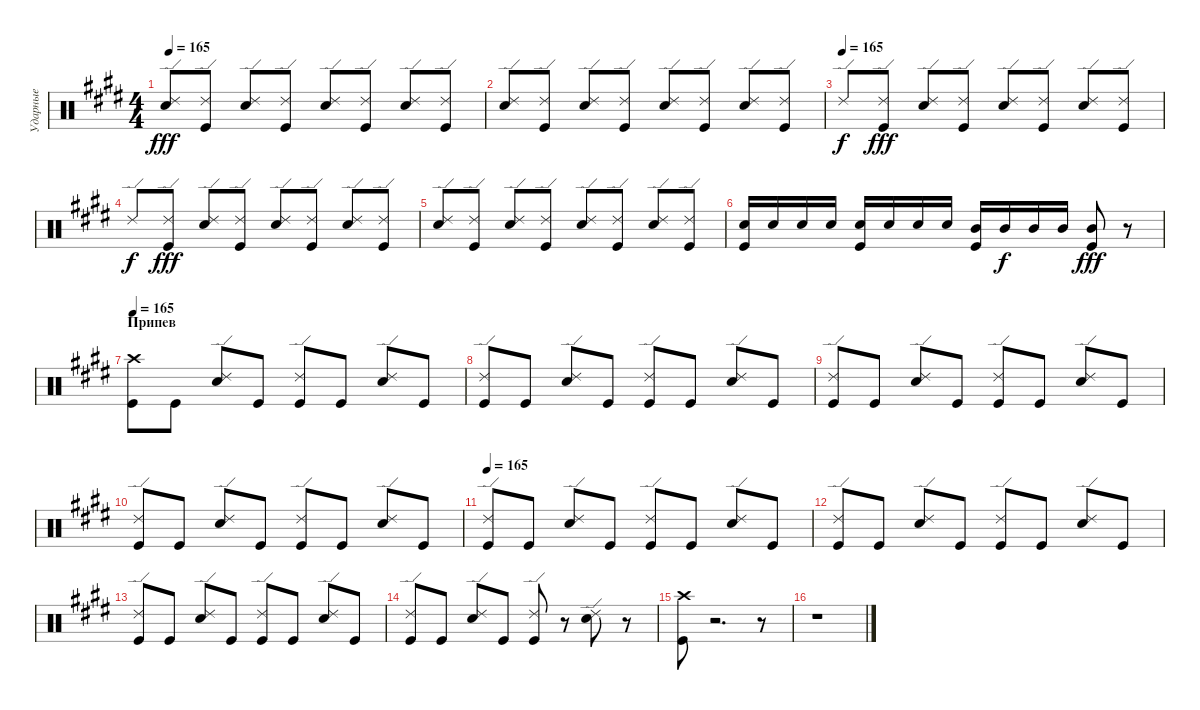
\track ("Ударные" "Ударные") {instrument percussion}
\staff {score}
\articulation defaults
\ts (4 4)
\tempo 165
\clef neutral
\ks e
("Ride (edge) 2" "Snare (hit) 2").8{dy fff} ("Ride (edge) 2" "Kick (hit)").8 ("Ride (edge) 2" "Snare (hit) 2").8 ("Ride (edge) 2" "Kick (hit)").8 ("Ride (edge) 2" "Snare (hit) 2").8 ("Ride (edge) 2" "Kick (hit)").8 ("Ride (edge) 2" "Snare (hit) 2").8 ("Ride (edge) 2" "Kick (hit)").8 |
("Ride (edge) 2" "Snare (hit) 2").8 ("Ride (edge) 2" "Kick (hit)").8 ("Ride (edge) 2" "Snare (hit) 2").8 ("Ride (edge) 2" "Kick (hit)").8 ("Ride (edge) 2" "Snare (hit) 2").8 ("Ride (edge) 2" "Kick (hit)").8 ("Ride (edge) 2" "Snare (hit) 2").8 ("Ride (edge) 2" "Kick (hit)").8 |
\tempo (165)
"Ride (edge) 2".8{dy f} ("Ride (edge) 2" "Kick (hit)").8{dy fff} ("Ride (edge) 2" "Snare (hit) 2").8 ("Ride (edge) 2" "Kick (hit)").8 ("Ride (edge) 2" "Snare (hit) 2").8 ("Ride (edge) 2" "Kick (hit)").8 ("Ride (edge) 2" "Snare (hit) 2").8 ("Ride (edge) 2" "Kick (hit)").8 |
"Ride (edge) 2".8{dy f} ("Ride (edge) 2" "Kick (hit)").8{dy fff} ("Ride (edge) 2" "Snare (hit) 2").8 ("Ride (edge) 2" "Kick (hit)").8 ("Ride (edge) 2" "Snare (hit) 2").8 ("Ride (edge) 2" "Kick (hit)").8 ("Ride (edge) 2" "Snare (hit) 2").8 ("Ride (edge) 2" "Kick (hit)").8 |
("Ride (edge) 2" "Snare (hit) 2").8 ("Ride (edge) 2" "Kick (hit)").8 ("Ride (edge) 2" "Snare (hit) 2").8 ("Ride (edge) 2" "Kick (hit)").8 ("Ride (edge) 2" "Snare (hit) 2").8 ("Ride (edge) 2" "Kick (hit)").8 ("Ride (edge) 2" "Snare (hit) 2").8 ("Ride (edge) 2" "Kick (hit)").8 |
("Snare (hit) 2" "Kick (hit)").16 "Snare (hit) 2".16 "Snare (hit) 2".16 "Snare (hit) 2".16 ("Snare (hit) 2" "Kick (hit)").16 "Snare (hit) 2".16 "Snare (hit) 2".16 "Snare (hit) 2".16 ("Mid Tom (hit)" "Kick (hit)").16 "Mid Tom (hit)".16{dy f} "Mid Tom (hit)".16 "Mid Tom (hit)".16 ("Mid Tom (hit)" "Kick (hit)").8{dy fff} r.8 |
\section ("" "Припев")
\tempo 165
("Crash high (hit)" "Kick (hit)").8 "Kick (hit)".8 ("Ride (edge) 2" "Snare (hit) 2").8 "Kick (hit)".8 ("Ride (edge) 2" "Kick (hit)").8 "Kick (hit)".8 ("Ride (edge) 2" "Snare (hit) 2").8 "Kick (hit)".8 |
("Ride (edge) 2" "Kick (hit)").8 "Kick (hit)".8 ("Ride (edge) 2" "Snare (hit) 2").8 "Kick (hit)".8 ("Ride (edge) 2" "Kick (hit)").8 "Kick (hit)".8 ("Ride (edge) 2" "Snare (hit) 2").8 "Kick (hit)".8 |
("Ride (edge) 2" "Kick (hit)").8 "Kick (hit)".8 ("Ride (edge) 2" "Snare (hit) 2").8 "Kick (hit)".8 ("Ride (edge) 2" "Kick (hit)").8 "Kick (hit)".8 ("Ride (edge) 2" "Snare (hit) 2").8 "Kick (hit)".8 |
("Ride (edge) 2" "Kick (hit)").8 "Kick (hit)".8 ("Ride (edge) 2" "Snare (hit) 2").8 "Kick (hit)".8 ("Ride (edge) 2" "Kick (hit)").8 "Kick (hit)".8 ("Ride (edge) 2" "Snare (hit) 2").8 "Kick (hit)".8 |
\tempo 165
("Ride (edge) 2" "Kick (hit)").8 "Kick (hit)".8 ("Ride (edge) 2" "Snare (hit) 2").8 "Kick (hit)".8 ("Ride (edge) 2" "Kick (hit)").8 "Kick (hit)".8 ("Ride (edge) 2" "Snare (hit) 2").8 "Kick (hit)".8 |
("Ride (edge) 2" "Kick (hit)").8 "Kick (hit)".8 ("Ride (edge) 2" "Snare (hit) 2").8 "Kick (hit)".8 ("Ride (edge) 2" "Kick (hit)").8 "Kick (hit)".8 ("Ride (edge) 2" "Snare (hit) 2").8 "Kick (hit)".8 |
("Ride (edge) 2" "Kick (hit)").8 "Kick (hit)".8 ("Ride (edge) 2" "Snare (hit) 2").8 "Kick (hit)".8 ("Ride (edge) 2" "Kick (hit)").8 "Kick (hit)".8 ("Ride (edge) 2" "Snare (hit) 2").8 "Kick (hit)".8 |
("Ride (edge) 2" "Kick (hit)").8 "Kick (hit)".8 ("Ride (edge) 2" "Snare (hit) 2").8 "Kick (hit)".8 ("Ride (edge) 2" "Kick (hit)").8 r.8 ("Ride (edge) 2" "Snare (hit) 2").8 r.8 |
("Crash high (hit)" "Kick (hit)").8 r.2{d} r.8 |
r.1
